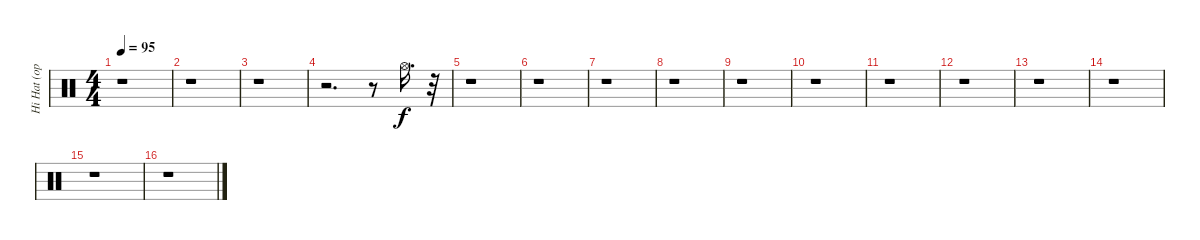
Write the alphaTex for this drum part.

\track ("Hi Hat (open)" "Hi Hat (op") {instrument percussion}
\staff {score}
\articulation defaults
\ts (4 4)
\tempo 95
\clef neutral
\ks c
r.1{dy f} |
r.1 |
r.1 |
r.2{d} r.8 "Hi-Hat (open)".16{d} r.32 |
r.1 |
r.1 |
r.1 |
r.1 |
r.1 |
r.1 |
r.1 |
r.1 |
r.1 |
r.1 |
r.1 |
r.1
